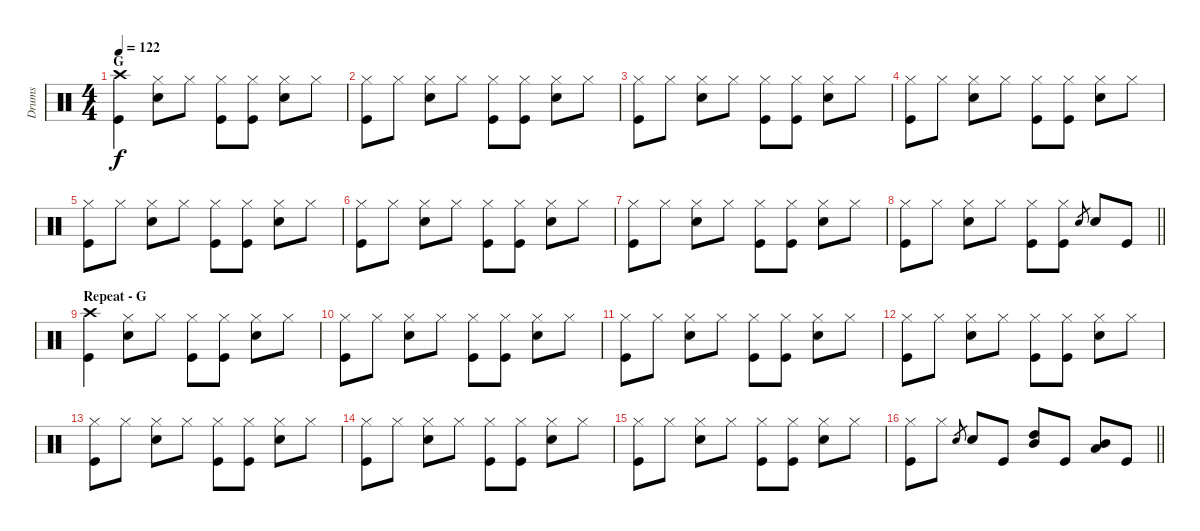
\track ("Drums" "Drums") {instrument percussion}
\staff {score}
\articulation defaults
\ts (4 4)
\section ("" "G")
\tempo 122
\clef neutral
\ks c
("Crash high (hit)" "Kick (hit)").4{dy f} ("Hi-Hat (closed)" "Electric Snare (hit)").8 "Hi-Hat (closed)".8 ("Hi-Hat (closed)" "Kick (hit)").8 ("Hi-Hat (closed)" "Kick (hit)").8 ("Hi-Hat (closed)" "Electric Snare (hit)").8 "Hi-Hat (closed)".8 |
("Hi-Hat (closed)" "Kick (hit)").8 "Hi-Hat (closed)".8 ("Hi-Hat (closed)" "Electric Snare (hit)").8 "Hi-Hat (closed)".8 ("Hi-Hat (closed)" "Kick (hit)").8 ("Hi-Hat (closed)" "Kick (hit)").8 ("Hi-Hat (closed)" "Electric Snare (hit)").8 "Hi-Hat (closed)".8 |
("Hi-Hat (closed)" "Kick (hit)").8 "Hi-Hat (closed)".8 ("Hi-Hat (closed)" "Electric Snare (hit)").8 "Hi-Hat (closed)".8 ("Hi-Hat (closed)" "Kick (hit)").8 ("Hi-Hat (closed)" "Kick (hit)").8 ("Hi-Hat (closed)" "Electric Snare (hit)").8 "Hi-Hat (closed)".8 |
("Hi-Hat (closed)" "Kick (hit)").8 "Hi-Hat (closed)".8 ("Hi-Hat (closed)" "Electric Snare (hit)").8 "Hi-Hat (closed)".8 ("Hi-Hat (closed)" "Kick (hit)").8 ("Hi-Hat (closed)" "Kick (hit)").8 ("Hi-Hat (closed)" "Electric Snare (hit)").8 "Hi-Hat (closed)".8 |
("Hi-Hat (closed)" "Kick (hit)").8 "Hi-Hat (closed)".8 ("Hi-Hat (closed)" "Electric Snare (hit)").8 "Hi-Hat (closed)".8 ("Hi-Hat (closed)" "Kick (hit)").8 ("Hi-Hat (closed)" "Kick (hit)").8 ("Hi-Hat (closed)" "Electric Snare (hit)").8 "Hi-Hat (closed)".8 |
("Hi-Hat (closed)" "Kick (hit)").8 "Hi-Hat (closed)".8 ("Hi-Hat (closed)" "Electric Snare (hit)").8 "Hi-Hat (closed)".8 ("Hi-Hat (closed)" "Kick (hit)").8 ("Hi-Hat (closed)" "Kick (hit)").8 ("Hi-Hat (closed)" "Electric Snare (hit)").8 "Hi-Hat (closed)".8 |
("Hi-Hat (closed)" "Kick (hit)").8 "Hi-Hat (closed)".8 ("Hi-Hat (closed)" "Electric Snare (hit)").8 "Hi-Hat (closed)".8 ("Hi-Hat (closed)" "Kick (hit)").8 ("Hi-Hat (closed)" "Kick (hit)").8 ("Hi-Hat (closed)" "Electric Snare (hit)").8 "Hi-Hat (closed)".8 |
\barLineRight lightlight
("Hi-Hat (closed)" "Kick (hit)").8 "Hi-Hat (closed)".8 ("Hi-Hat (closed)" "Electric Snare (hit)").8 "Hi-Hat (closed)".8 ("Hi-Hat (closed)" "Kick (hit)").8 ("Hi-Hat (closed)" "Kick (hit)").8 "Electric Snare (hit)".8{gr} "Electric Snare (hit)".8 "Kick (hit)".8 |
\section ("" "Repeat - G")
("Crash high (hit)" "Kick (hit)").4 ("Hi-Hat (closed)" "Electric Snare (hit)").8 "Hi-Hat (closed)".8 ("Hi-Hat (closed)" "Kick (hit)").8 ("Hi-Hat (closed)" "Kick (hit)").8 ("Hi-Hat (closed)" "Electric Snare (hit)").8 "Hi-Hat (closed)".8 |
("Hi-Hat (closed)" "Kick (hit)").8 "Hi-Hat (closed)".8 ("Hi-Hat (closed)" "Electric Snare (hit)").8 "Hi-Hat (closed)".8 ("Hi-Hat (closed)" "Kick (hit)").8 ("Hi-Hat (closed)" "Kick (hit)").8 ("Hi-Hat (closed)" "Electric Snare (hit)").8 "Hi-Hat (closed)".8 |
("Hi-Hat (closed)" "Kick (hit)").8 "Hi-Hat (closed)".8 ("Hi-Hat (closed)" "Electric Snare (hit)").8 "Hi-Hat (closed)".8 ("Hi-Hat (closed)" "Kick (hit)").8 ("Hi-Hat (closed)" "Kick (hit)").8 ("Hi-Hat (closed)" "Electric Snare (hit)").8 "Hi-Hat (closed)".8 |
("Hi-Hat (closed)" "Kick (hit)").8 "Hi-Hat (closed)".8 ("Hi-Hat (closed)" "Electric Snare (hit)").8 "Hi-Hat (closed)".8 ("Hi-Hat (closed)" "Kick (hit)").8 ("Hi-Hat (closed)" "Kick (hit)").8 ("Hi-Hat (closed)" "Electric Snare (hit)").8 "Hi-Hat (closed)".8 |
("Hi-Hat (closed)" "Kick (hit)").8 "Hi-Hat (closed)".8 ("Hi-Hat (closed)" "Electric Snare (hit)").8 "Hi-Hat (closed)".8 ("Hi-Hat (closed)" "Kick (hit)").8 ("Hi-Hat (closed)" "Kick (hit)").8 ("Hi-Hat (closed)" "Electric Snare (hit)").8 "Hi-Hat (closed)".8 |
("Hi-Hat (closed)" "Kick (hit)").8 "Hi-Hat (closed)".8 ("Hi-Hat (closed)" "Electric Snare (hit)").8 "Hi-Hat (closed)".8 ("Hi-Hat (closed)" "Kick (hit)").8 ("Hi-Hat (closed)" "Kick (hit)").8 ("Hi-Hat (closed)" "Electric Snare (hit)").8 "Hi-Hat (closed)".8 |
("Hi-Hat (closed)" "Kick (hit)").8 "Hi-Hat (closed)".8 ("Hi-Hat (closed)" "Electric Snare (hit)").8 "Hi-Hat (closed)".8 ("Hi-Hat (closed)" "Kick (hit)").8 ("Hi-Hat (closed)" "Kick (hit)").8 ("Hi-Hat (closed)" "Electric Snare (hit)").8 "Hi-Hat (closed)".8 |
\barLineRight lightlight
("Hi-Hat (closed)" "Kick (hit)").8 "Hi-Hat (closed)".8 "Electric Snare (hit)".8{gr} "Electric Snare (hit)".8 "Kick (hit)".8 ("High Tom (hit)" "Mid Tom (hit)").8 "Kick (hit)".8 ("Mid Tom (hit)" "Low Tom (hit)").8 "Kick (hit)".8
